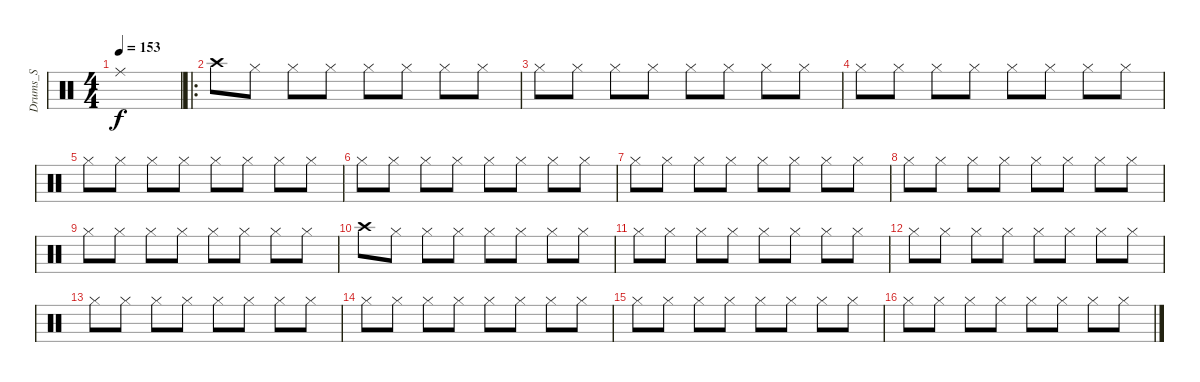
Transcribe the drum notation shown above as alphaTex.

\track ("Drums_S" "Drums_S") {instrument percussion}
\staff {score}
\articulation defaults
\ts (4 4)
\tempo 153
\clef neutral
\ks c "Ride (middle)".1{dy f}
|
\ro "Crash high (hit)".8 "Hi-Hat (closed)".8 "Hi-Hat (closed)".8 "Hi-Hat (closed)".8 "Hi-Hat (closed)".8 "Hi-Hat (closed)".8 "Hi-Hat (closed)".8 "Hi-Hat (closed)".8
|
"Hi-Hat (closed)".8 "Hi-Hat (closed)".8 "Hi-Hat (closed)".8 "Hi-Hat (closed)".8 "Hi-Hat (closed)".8 "Hi-Hat (closed)".8 "Hi-Hat (closed)".8 "Hi-Hat (closed)".8 |
"Hi-Hat (closed)".8 "Hi-Hat (closed)".8 "Hi-Hat (closed)".8 "Hi-Hat (closed)".8 "Hi-Hat (closed)".8 "Hi-Hat (closed)".8 "Hi-Hat (closed)".8 "Hi-Hat (closed)".8 |
"Hi-Hat (closed)".8 "Hi-Hat (closed)".8 "Hi-Hat (closed)".8 "Hi-Hat (closed)".8 "Hi-Hat (closed)".8 "Hi-Hat (closed)".8 "Hi-Hat (closed)".8 "Hi-Hat (closed)".8 |
"Hi-Hat (closed)".8 "Hi-Hat (closed)".8 "Hi-Hat (closed)".8 "Hi-Hat (closed)".8 "Hi-Hat (closed)".8 "Hi-Hat (closed)".8 "Hi-Hat (closed)".8 "Hi-Hat (closed)".8 |
"Hi-Hat (closed)".8 "Hi-Hat (closed)".8 "Hi-Hat (closed)".8 "Hi-Hat (closed)".8 "Hi-Hat (closed)".8 "Hi-Hat (closed)".8 "Hi-Hat (closed)".8 "Hi-Hat (closed)".8 |
"Hi-Hat (closed)".8 "Hi-Hat (closed)".8 "Hi-Hat (closed)".8 "Hi-Hat (closed)".8 "Hi-Hat (closed)".8 "Hi-Hat (closed)".8 "Hi-Hat (closed)".8 "Hi-Hat (closed)".8 |
"Hi-Hat (closed)".8 "Hi-Hat (closed)".8 "Hi-Hat (closed)".8 "Hi-Hat (closed)".8 "Hi-Hat (closed)".8 "Hi-Hat (closed)".8 "Hi-Hat (closed)".8 "Hi-Hat (closed)".8 |
"Crash high (hit)".8 "Hi-Hat (closed)".8 "Hi-Hat (closed)".8 "Hi-Hat (closed)".8 "Hi-Hat (closed)".8 "Hi-Hat (closed)".8 "Hi-Hat (closed)".8 "Hi-Hat (closed)".8 |
"Hi-Hat (closed)".8 "Hi-Hat (closed)".8 "Hi-Hat (closed)".8 "Hi-Hat (closed)".8 "Hi-Hat (closed)".8 "Hi-Hat (closed)".8 "Hi-Hat (closed)".8 "Hi-Hat (closed)".8 |
"Hi-Hat (closed)".8 "Hi-Hat (closed)".8 "Hi-Hat (closed)".8 "Hi-Hat (closed)".8 "Hi-Hat (closed)".8 "Hi-Hat (closed)".8 "Hi-Hat (closed)".8 "Hi-Hat (closed)".8 |
"Hi-Hat (closed)".8 "Hi-Hat (closed)".8 "Hi-Hat (closed)".8 "Hi-Hat (closed)".8 "Hi-Hat (closed)".8 "Hi-Hat (closed)".8 "Hi-Hat (closed)".8 "Hi-Hat (closed)".8 |
"Hi-Hat (closed)".8 "Hi-Hat (closed)".8 "Hi-Hat (closed)".8 "Hi-Hat (closed)".8 "Hi-Hat (closed)".8 "Hi-Hat (closed)".8 "Hi-Hat (closed)".8 "Hi-Hat (closed)".8 |
"Hi-Hat (closed)".8 "Hi-Hat (closed)".8 "Hi-Hat (closed)".8 "Hi-Hat (closed)".8 "Hi-Hat (closed)".8 "Hi-Hat (closed)".8 "Hi-Hat (closed)".8 "Hi-Hat (closed)".8 |
"Hi-Hat (closed)".8 "Hi-Hat (closed)".8 "Hi-Hat (closed)".8 "Hi-Hat (closed)".8 "Hi-Hat (closed)".8 "Hi-Hat (closed)".8 "Hi-Hat (closed)".8 "Hi-Hat (closed)".8
